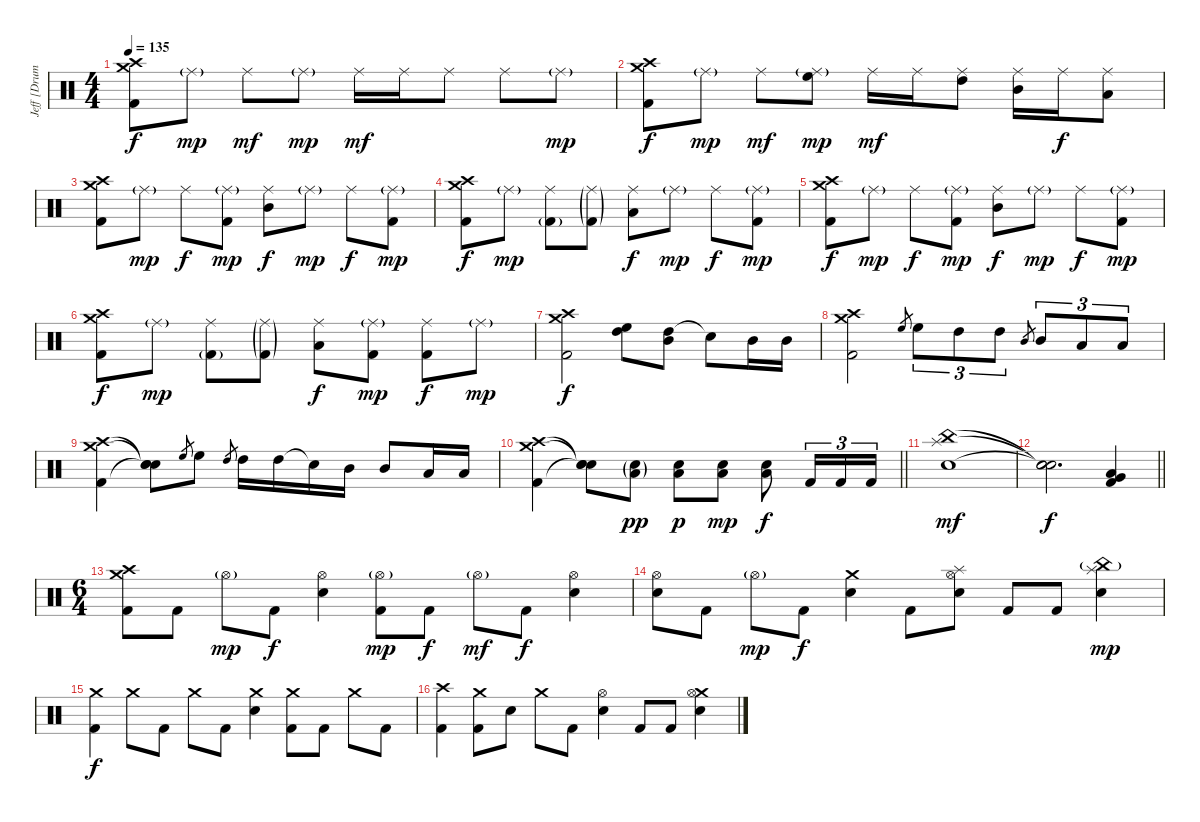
\track ("Jeff [Drums]" "Jeff [Drum") {instrument percussion}
\staff {score}
\articulation defaults
\ts (4 4)
\tempo 135
\clef neutral
\ks c
("Crash high (hit)" "Crash medium (hit)" "Kick (hit) 2").8{dy f} "Ride (middle)"{g}.8{dy mp} "Ride (middle)".8{dy mf} "Ride (middle)"{g}.8{dy mp} "Ride (middle)".16{dy mf} "Ride (middle)".16 "Ride (middle)".8 "Ride (middle)".8 "Ride (middle)"{g}.8{dy mp} |
("Crash high (hit)" "Crash medium (hit)" "Kick (hit) 2").8{dy f} "Ride (middle)"{g}.8{dy mp} "Ride (middle)".8{dy mf} ("Ride (middle)"{g} "High Floor Tom (hit)").8{dy mp} "Ride (middle)".16{dy mf} "Ride (middle)".16 ("Ride (middle)" "High Tom (hit)").8 ("Ride (middle)" "Mid Tom (hit)").16 "Ride (middle)".16{dy f} ("Ride (middle)" "Low Tom (hit)").8 |
("Crash high (hit)" "Crash medium (hit)" "Kick (hit) 2").8 "Ride (middle)"{g}.8{dy mp} "Ride (middle)".8{dy f} ("Ride (middle)"{g} "Kick (hit) 2").8{dy mp} ("Ride (middle)" "Mid Tom (hit)").8{dy f} "Ride (middle)"{g}.8{dy mp} "Ride (middle)".8{dy f} ("Ride (middle)"{g} "Kick (hit) 2").8{dy mp} |
("Crash high (hit)" "Crash medium (hit)" "Kick (hit) 2").8{dy f} "Ride (middle)"{g}.8{dy mp} ("Ride (middle)" "Kick (hit) 2"{g}).8 ("Ride (middle)"{g} "Kick (hit) 2"{g}).8 ("Ride (middle)" "Low Tom (hit)").8{dy f} "Ride (middle)"{g}.8{dy mp} "Ride (middle)".8{dy f} ("Ride (middle)"{g} "Kick (hit) 2").8{dy mp} |
("Crash high (hit)" "Crash medium (hit)" "Kick (hit) 2").8{dy f} "Ride (middle)"{g}.8{dy mp} "Ride (middle)".8{dy f} ("Ride (middle)"{g} "Kick (hit) 2").8{dy mp} ("Ride (middle)" "Mid Tom (hit)").8{dy f} "Ride (middle)"{g}.8{dy mp} "Ride (middle)".8{dy f} ("Ride (middle)"{g} "Kick (hit) 2").8{dy mp} |
("Crash high (hit)" "Crash medium (hit)" "Kick (hit) 2").8{dy f} "Ride (middle)"{g}.8{dy mp} ("Ride (middle)" "Kick (hit) 2"{g}).8 ("Ride (middle)"{g} "Kick (hit) 2"{g}).8 ("Ride (middle)" "Low Tom (hit)").8{dy f} ("Ride (middle)"{g} "Kick (hit) 2").8{dy mp} ("Ride (middle)" "Kick (hit) 2").8{dy f} "Ride (middle)"{g}.8{dy mp} |
("Crash high (hit)" "Crash medium (hit)" "Kick (hit) 2").2{dy f} ("High Floor Tom (hit)" "High Tom (hit)").8 ("High Tom (hit)" "Mid Tom (hit)").8 "Snare (hit)"{t}.8 "Mid Tom (hit)".16 "Mid Tom (hit)".16 |
("Crash high (hit)" "Crash medium (hit)" "Kick (hit) 2").2 "High Floor Tom (hit)".8{gr} "High Floor Tom (hit)".8{tu (3 2)} "High Tom (hit)".8{tu (3 2)} "High Tom (hit)".8{tu (3 2)} "Mid Tom (hit)".8{gr} "Mid Tom (hit)".8{tu (3 2)} "Low Tom (hit)".8{tu (3 2)} "Low Tom (hit)".8{tu (3 2)} |
("Crash high (hit)" "Crash medium (hit)" "Kick (hit) 2").4 ("Snare (hit)"{t} "Snare (hit)"{t} "Snare (hit)"{t}).8 "High Floor Tom (hit)".8{gr} "High Floor Tom (hit)".8 "High Tom (hit)".8{gr} "High Tom (hit)".16 "High Tom (hit)".16 "Snare (hit)"{t}.16 "Mid Tom (hit)".16 "Mid Tom (hit)".8 "Low Tom (hit)".16 "Low Tom (hit)".16 |
\barLineRight lightlight
("Crash high (hit)" "Crash medium (hit)" "Kick (hit) 2").4 ("Snare (hit)"{t} "Snare (hit)"{t} "Snare (hit)"{t}).8 ("Low Tom (hit)"{g} "Electric Snare (hit)"{g}).8{dy pp} ("Low Tom (hit)" "Electric Snare (hit)").8{dy p} ("Low Tom (hit)" "Electric Snare (hit)").8{dy mp} ("Low Tom (hit)" "Electric Snare (hit)").8{dy f} "Kick (hit) 2".16{tu (3 2)} "Kick (hit) 2".16{tu (3 2)} "Kick (hit) 2".16{tu (3 2)} |
("China (hit)" "Splash (hit)" "Electric Snare (hit)").1{dy mf} |
\barLineRight lightlight
("Snare (hit)"{t} "Snare (hit)"{t} "Snare (hit)"{t}).2{d dy f} ("Low Tom (hit)" "Very Low Tom (hit)" "Kick (hit) 2").4 |
\ts (6 4)
("Crash high (hit)" "Crash medium (hit)" "Kick (hit) 2").8 "Kick (hit) 2".8 "Hi-Hat (open)"{g}.8{dy mp} "Kick (hit) 2".8{dy f} ("Hi-Hat (open)" "Electric Snare (hit)").4 ("Hi-Hat (open)"{g} "Kick (hit) 2").8{dy mp} "Kick (hit) 2".8{dy f} "Hi-Hat (open)"{g}.8{dy mf} "Kick (hit) 2".8{dy f} ("Hi-Hat (open)" "Electric Snare (hit)").4 |
("Hi-Hat (open)" "Electric Snare (hit)").8 "Kick (hit) 2".8 "Hi-Hat (open)"{g}.8{dy mp} "Kick (hit) 2".8{dy f} ("Crash medium (hit)" "Electric Snare (hit)").4 "Kick (hit) 2".8 ("Splash (hit)" "Hi-Hat (open)" "Electric Snare (hit)").8 "Kick (hit) 2".8 "Kick (hit) 2".8 ("China (hit)"{g} "Splash (hit)" "Electric Snare (hit)").4{dy mp} |
("Crash medium (hit)" "Kick (hit) 2").4{dy f} "Crash medium (hit)".8 "Kick (hit) 2".8 "Crash medium (hit)".8 "Kick (hit) 2".8 ("Crash medium (hit)" "Electric Snare (hit)").4 ("Crash medium (hit)" "Kick (hit) 2").8 "Kick (hit) 2".8 "Crash medium (hit)".8 "Kick (hit) 2".8 |
("Crash high (hit)" "Kick (hit) 2").4 ("Crash medium (hit)" "Kick (hit) 2").8 "Electric Snare (hit)".8 "Crash medium (hit)".8 "Kick (hit) 2".8 ("Hi-Hat (open)" "Electric Snare (hit)").4 "Kick (hit) 2".8 "Kick (hit) 2".8 ("Crash medium (hit)" "Hi-Hat (open)" "Electric Snare (hit)").4
